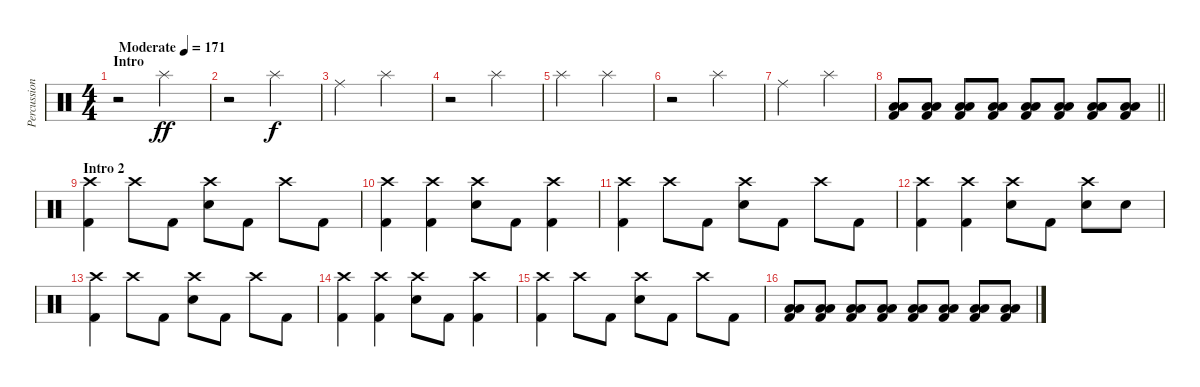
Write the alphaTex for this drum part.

\track ("Percussion" "Percussion") {instrument percussion}
\staff {score}
\articulation defaults
\ts (4 4)
\section ("" "Intro")
\tempo (171 "Moderate")
\clef neutral
\ks c
r.2{dy ff} "Splash (hit)".2 |
r.2 "Splash (hit)".2{dy f} |
"Ride (middle)".2 "Splash (hit)".2 |
r.2 "Splash (hit)".2 |
"Splash (hit)".2 "Splash (hit)".2 |
r.2 "Splash (hit)".2 |
"Ride (middle)".2 "Splash (hit)".2 |
\barLineRight lightlight
("Low Floor Tom (hit)" "Low Floor Tom (hit)" "Kick (hit) 2").8 ("Low Floor Tom (hit)" "Low Floor Tom (hit)" "Kick (hit) 2").8 ("Low Floor Tom (hit)" "Low Floor Tom (hit)" "Kick (hit) 2").8 ("Low Floor Tom (hit)" "Low Floor Tom (hit)" "Kick (hit) 2").8 ("Low Floor Tom (hit)" "Low Floor Tom (hit)" "Kick (hit) 2").8 ("Low Floor Tom (hit)" "Low Floor Tom (hit)" "Kick (hit) 2").8 ("Low Floor Tom (hit)" "Low Floor Tom (hit)" "Kick (hit) 2").8 ("Low Floor Tom (hit)" "Low Floor Tom (hit)" "Kick (hit) 2").8 |
\section ("" "Intro 2")
("Crash high (hit)" "Kick (hit) 2").4 "Crash high (hit)".8 "Kick (hit) 2".8 ("Crash high (hit)" "Snare (hit) 2").8 "Kick (hit) 2".8 "Crash high (hit)".8 "Kick (hit) 2".8 |
("Crash high (hit)" "Kick (hit) 2").4 ("Crash high (hit)" "Kick (hit) 2").4 ("Crash high (hit)" "Snare (hit) 2").8 "Kick (hit) 2".8 ("Crash high (hit)" "Kick (hit) 2").4 |
("Crash high (hit)" "Kick (hit) 2").4 "Crash high (hit)".8 "Kick (hit) 2".8 ("Crash high (hit)" "Snare (hit) 2").8 "Kick (hit) 2".8 "Crash high (hit)".8 "Kick (hit) 2".8 |
("Crash high (hit)" "Kick (hit) 2").4 ("Crash high (hit)" "Kick (hit) 2").4 ("Crash high (hit)" "Snare (hit) 2").8 "Kick (hit) 2".8 ("Crash high (hit)" "Snare (hit) 2").8 "Snare (hit) 2".8 |
("Crash high (hit)" "Kick (hit) 2").4 "Crash high (hit)".8 "Kick (hit) 2".8 ("Crash high (hit)" "Snare (hit) 2").8 "Kick (hit) 2".8 "Crash high (hit)".8 "Kick (hit) 2".8 |
("Crash high (hit)" "Kick (hit) 2").4 ("Crash high (hit)" "Kick (hit) 2").4 ("Crash high (hit)" "Snare (hit) 2").8 "Kick (hit) 2".8 ("Crash high (hit)" "Kick (hit) 2").4 |
("Crash high (hit)" "Kick (hit) 2").4 "Crash high (hit)".8 "Kick (hit) 2".8 ("Crash high (hit)" "Snare (hit) 2").8 "Kick (hit) 2".8 "Crash high (hit)".8 "Kick (hit) 2".8 |
("Low Floor Tom (hit)" "Low Floor Tom (hit)" "Kick (hit) 2").8 ("Low Floor Tom (hit)" "Low Floor Tom (hit)" "Kick (hit) 2").8 ("Low Floor Tom (hit)" "Low Floor Tom (hit)" "Kick (hit) 2").8 ("Low Floor Tom (hit)" "Low Floor Tom (hit)" "Kick (hit) 2").8 ("Low Floor Tom (hit)" "Low Floor Tom (hit)" "Kick (hit) 2").8 ("Low Floor Tom (hit)" "Low Floor Tom (hit)" "Kick (hit) 2").8 ("Low Floor Tom (hit)" "Low Floor Tom (hit)" "Kick (hit) 2").8 ("Low Floor Tom (hit)" "Low Floor Tom (hit)" "Kick (hit) 2").8
